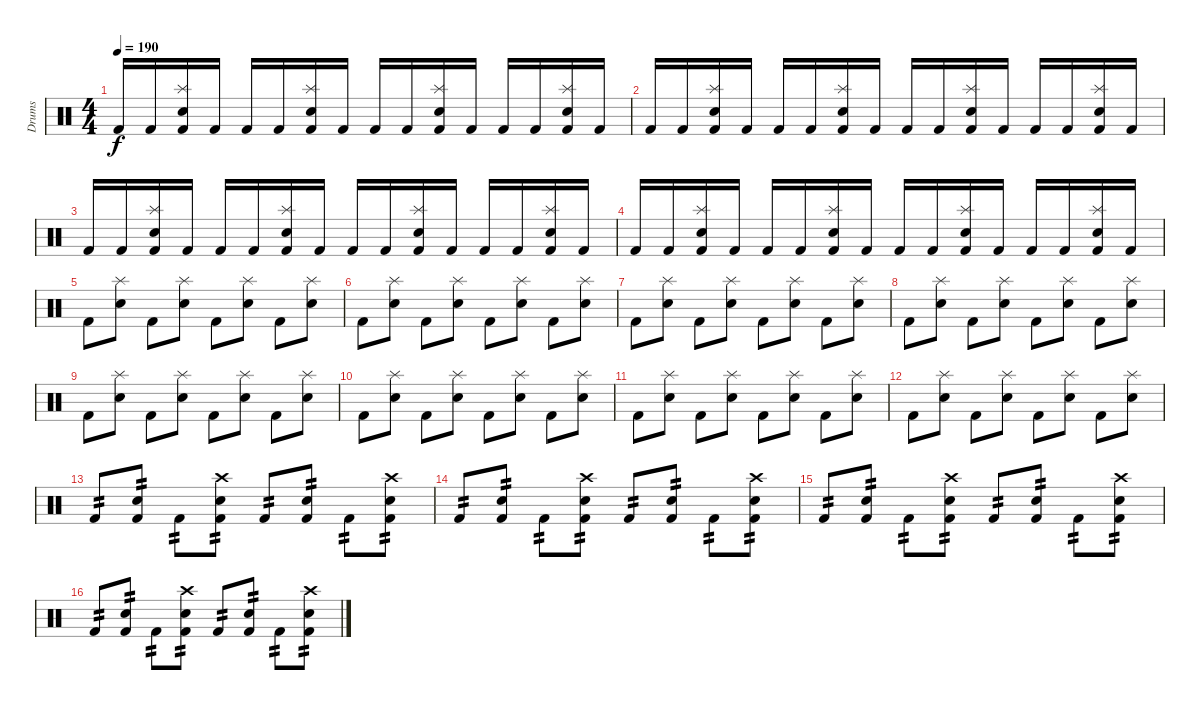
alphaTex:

\track ("Drums" "Drums") {instrument percussion}
\staff {score}
\articulation defaults
\ts (4 4)
\tempo 190
\clef neutral
\ks c "Kick (hit) 2".16{dy f} "Kick (hit) 2".16
("Splash (hit)" "Snare (hit) 2" "Kick (hit) 2").16 "Kick (hit) 2".16 "Kick (hit) 2".16 "Kick (hit) 2".16 ("Splash (hit)" "Snare (hit) 2" "Kick (hit) 2").16 "Kick (hit) 2".16 "Kick (hit) 2".16 "Kick (hit) 2".16 ("Splash (hit)" "Snare (hit) 2" "Kick (hit) 2").16 "Kick (hit) 2".16 "Kick (hit) 2".16 "Kick (hit) 2".16 ("Splash (hit)" "Snare (hit) 2" "Kick (hit) 2").16 "Kick (hit) 2".16 |
"Kick (hit) 2".16 "Kick (hit) 2".16 ("Splash (hit)" "Snare (hit) 2" "Kick (hit) 2").16 "Kick (hit) 2".16 "Kick (hit) 2".16 "Kick (hit) 2".16 ("Splash (hit)" "Snare (hit) 2" "Kick (hit) 2").16 "Kick (hit) 2".16 "Kick (hit) 2".16 "Kick (hit) 2".16 ("Splash (hit)" "Snare (hit) 2" "Kick (hit) 2").16 "Kick (hit) 2".16 "Kick (hit) 2".16 "Kick (hit) 2".16 ("Splash (hit)" "Snare (hit) 2" "Kick (hit) 2").16 "Kick (hit) 2".16 |
"Kick (hit) 2".16 "Kick (hit) 2".16 ("Splash (hit)" "Snare (hit) 2" "Kick (hit) 2").16 "Kick (hit) 2".16 "Kick (hit) 2".16 "Kick (hit) 2".16 ("Splash (hit)" "Snare (hit) 2" "Kick (hit) 2").16 "Kick (hit) 2".16 "Kick (hit) 2".16 "Kick (hit) 2".16 ("Splash (hit)" "Snare (hit) 2" "Kick (hit) 2").16 "Kick (hit) 2".16 "Kick (hit) 2".16 "Kick (hit) 2".16 ("Splash (hit)" "Snare (hit) 2" "Kick (hit) 2").16 "Kick (hit) 2".16 |
"Kick (hit) 2".16 "Kick (hit) 2".16 ("Splash (hit)" "Snare (hit) 2" "Kick (hit) 2").16 "Kick (hit) 2".16 "Kick (hit) 2".16 "Kick (hit) 2".16 ("Splash (hit)" "Snare (hit) 2" "Kick (hit) 2").16 "Kick (hit) 2".16 "Kick (hit) 2".16 "Kick (hit) 2".16 ("Splash (hit)" "Snare (hit) 2" "Kick (hit) 2").16 "Kick (hit) 2".16 "Kick (hit) 2".16 "Kick (hit) 2".16 ("Splash (hit)" "Snare (hit) 2" "Kick (hit) 2").16 "Kick (hit) 2".16 |
"Kick (hit) 2".8 ("Splash (hit)" "Snare (hit) 2").8 "Kick (hit) 2".8 ("Splash (hit)" "Snare (hit) 2").8 "Kick (hit) 2".8 ("Splash (hit)" "Snare (hit) 2").8 "Kick (hit) 2".8 ("Splash (hit)" "Snare (hit) 2").8 |
"Kick (hit) 2".8 ("Splash (hit)" "Snare (hit) 2").8 "Kick (hit) 2".8 ("Splash (hit)" "Snare (hit) 2").8 "Kick (hit) 2".8 ("Splash (hit)" "Snare (hit) 2").8 "Kick (hit) 2".8 ("Splash (hit)" "Snare (hit) 2").8 |
"Kick (hit) 2".8 ("Splash (hit)" "Snare (hit) 2").8 "Kick (hit) 2".8 ("Splash (hit)" "Snare (hit) 2").8 "Kick (hit) 2".8 ("Splash (hit)" "Snare (hit) 2").8 "Kick (hit) 2".8 ("Splash (hit)" "Snare (hit) 2").8 |
"Kick (hit) 2".8 ("Splash (hit)" "Snare (hit) 2").8 "Kick (hit) 2".8 ("Splash (hit)" "Snare (hit) 2").8 "Kick (hit) 2".8 ("Splash (hit)" "Snare (hit) 2").8 "Kick (hit) 2".8 ("Splash (hit)" "Snare (hit) 2").8 |
"Kick (hit) 2".8 ("Splash (hit)" "Snare (hit) 2").8 "Kick (hit) 2".8 ("Splash (hit)" "Snare (hit) 2").8 "Kick (hit) 2".8 ("Splash (hit)" "Snare (hit) 2").8 "Kick (hit) 2".8 ("Splash (hit)" "Snare (hit) 2").8 |
"Kick (hit) 2".8 ("Splash (hit)" "Snare (hit) 2").8 "Kick (hit) 2".8 ("Splash (hit)" "Snare (hit) 2").8 "Kick (hit) 2".8 ("Splash (hit)" "Snare (hit) 2").8 "Kick (hit) 2".8 ("Splash (hit)" "Snare (hit) 2").8 |
"Kick (hit) 2".8 ("Splash (hit)" "Snare (hit) 2").8 "Kick (hit) 2".8 ("Splash (hit)" "Snare (hit) 2").8 "Kick (hit) 2".8 ("Splash (hit)" "Snare (hit) 2").8 "Kick (hit) 2".8 ("Splash (hit)" "Snare (hit) 2").8 |
"Kick (hit) 2".8 ("Splash (hit)" "Snare (hit) 2").8 "Kick (hit) 2".8 ("Splash (hit)" "Snare (hit) 2").8 "Kick (hit) 2".8 ("Splash (hit)" "Snare (hit) 2").8 "Kick (hit) 2".8 ("Splash (hit)" "Snare (hit) 2").8 |
"Kick (hit) 2".8{tp 2} ("Snare (hit) 2" "Kick (hit) 2").8{tp 2} "Kick (hit) 2".8{tp 2} ("Crash high (hit)" "Snare (hit) 2" "Kick (hit) 2").8{tp 2} "Kick (hit) 2".8{tp 2} ("Snare (hit) 2" "Kick (hit) 2").8{tp 2} "Kick (hit) 2".8{tp 2} ("Crash high (hit)" "Snare (hit) 2" "Kick (hit) 2").8{tp 2} |
"Kick (hit) 2".8{tp 2} ("Snare (hit) 2" "Kick (hit) 2").8{tp 2} "Kick (hit) 2".8{tp 2} ("Crash high (hit)" "Snare (hit) 2" "Kick (hit) 2").8{tp 2} "Kick (hit) 2".8{tp 2} ("Snare (hit) 2" "Kick (hit) 2").8{tp 2} "Kick (hit) 2".8{tp 2} ("Crash high (hit)" "Snare (hit) 2" "Kick (hit) 2").8{tp 2} |
"Kick (hit) 2".8{tp 2} ("Snare (hit) 2" "Kick (hit) 2").8{tp 2} "Kick (hit) 2".8{tp 2} ("Crash high (hit)" "Snare (hit) 2" "Kick (hit) 2").8{tp 2} "Kick (hit) 2".8{tp 2} ("Snare (hit) 2" "Kick (hit) 2").8{tp 2} "Kick (hit) 2".8{tp 2} ("Crash high (hit)" "Snare (hit) 2" "Kick (hit) 2").8{tp 2} |
"Kick (hit) 2".8{tp 2} ("Snare (hit) 2" "Kick (hit) 2").8{tp 2} "Kick (hit) 2".8{tp 2} ("Crash high (hit)" "Snare (hit) 2" "Kick (hit) 2").8{tp 2} "Kick (hit) 2".8{tp 2} ("Snare (hit) 2" "Kick (hit) 2").8{tp 2} "Kick (hit) 2".8{tp 2} ("Crash high (hit)" "Snare (hit) 2" "Kick (hit) 2").8{tp 2}
